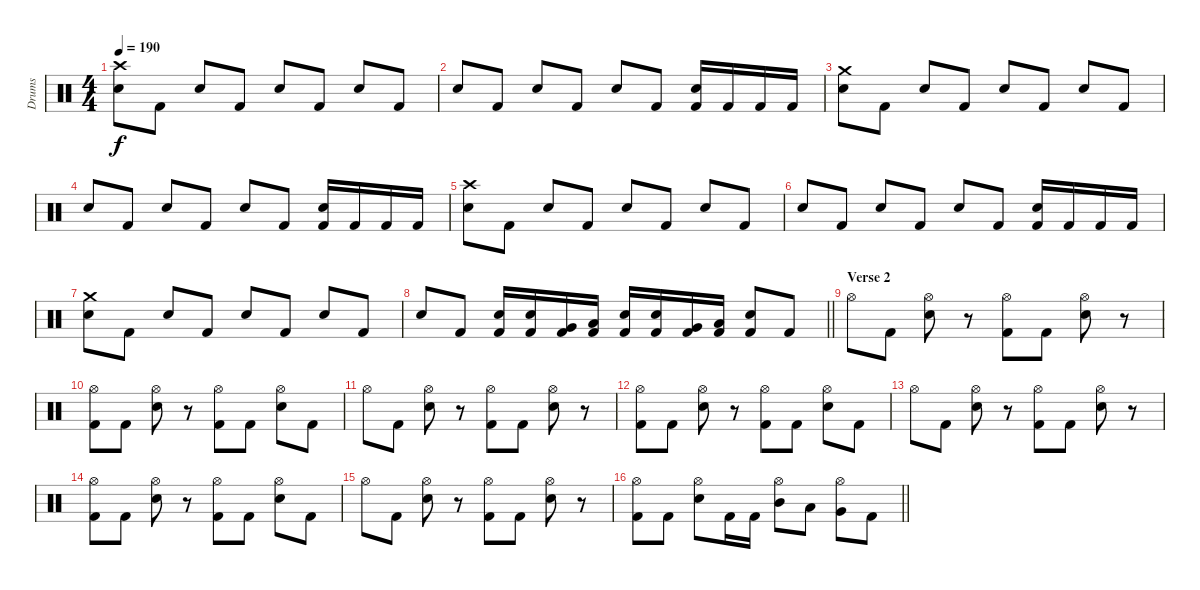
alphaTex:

\track ("Drums" "Drums") {instrument percussion}
\staff {score}
\articulation defaults
\ts (4 4)
\section ("" "")
\tempo 190
\clef neutral
\ks c
("Crash high (hit)" "Electric Snare (hit)").8{dy f} "Kick (hit) 2".8 "Electric Snare (hit)".8 "Kick (hit) 2".8 "Electric Snare (hit)".8 "Kick (hit) 2".8 "Electric Snare (hit)".8 "Kick (hit) 2".8 |
"Electric Snare (hit)".8 "Kick (hit) 2".8 "Electric Snare (hit)".8 "Kick (hit) 2".8 "Electric Snare (hit)".8 "Kick (hit) 2".8 ("Electric Snare (hit)" "Kick (hit) 2").16 "Kick (hit) 2".16 "Kick (hit) 2".16 "Kick (hit) 2".16 |
("Crash medium (hit)" "Electric Snare (hit)").8 "Kick (hit) 2".8 "Electric Snare (hit)".8 "Kick (hit) 2".8 "Electric Snare (hit)".8 "Kick (hit) 2".8 "Electric Snare (hit)".8 "Kick (hit) 2".8 |
"Electric Snare (hit)".8 "Kick (hit) 2".8 "Electric Snare (hit)".8 "Kick (hit) 2".8 "Electric Snare (hit)".8 "Kick (hit) 2".8 ("Electric Snare (hit)" "Kick (hit) 2").16 "Kick (hit) 2".16 "Kick (hit) 2".16 "Kick (hit) 2".16 |
("Crash high (hit)" "Electric Snare (hit)").8 "Kick (hit) 2".8 "Electric Snare (hit)".8 "Kick (hit) 2".8 "Electric Snare (hit)".8 "Kick (hit) 2".8 "Electric Snare (hit)".8 "Kick (hit) 2".8 |
"Electric Snare (hit)".8 "Kick (hit) 2".8 "Electric Snare (hit)".8 "Kick (hit) 2".8 "Electric Snare (hit)".8 "Kick (hit) 2".8 ("Electric Snare (hit)" "Kick (hit) 2").16 "Kick (hit) 2".16 "Kick (hit) 2".16 "Kick (hit) 2".16 |
("Crash medium (hit)" "Electric Snare (hit)").8 "Kick (hit) 2".8 "Electric Snare (hit)".8 "Kick (hit) 2".8 "Electric Snare (hit)".8 "Kick (hit) 2".8 "Electric Snare (hit)".8 "Kick (hit) 2".8 |
\barLineRight lightlight "Electric Snare (hit)".8 "Kick (hit) 2".8
("Electric Snare (hit)" "Kick (hit) 2").16 ("Electric Snare (hit)" "Kick (hit) 2").16 ("Very Low Tom (hit)" "Kick (hit) 2").16 ("Low Floor Tom (hit)" "Kick (hit) 2").16 ("Electric Snare (hit)" "Kick (hit) 2").16 ("Electric Snare (hit)" "Kick (hit) 2").16 ("Very Low Tom (hit)" "Kick (hit) 2").16 ("Low Floor Tom (hit)" "Kick (hit) 2").16 ("Electric Snare (hit)" "Kick (hit) 2").8 "Kick (hit) 2".8 |
\section ("" "Verse 2")
"Hi-Hat (open)".8 "Kick (hit) 2".8 ("Hi-Hat (open)" "Electric Snare (hit)").8 r.8 ("Hi-Hat (open)" "Kick (hit) 2").8 "Kick (hit) 2".8 ("Hi-Hat (open)" "Electric Snare (hit)").8 r.8 |
("Hi-Hat (open)" "Kick (hit) 2").8 "Kick (hit) 2".8 ("Hi-Hat (open)" "Electric Snare (hit)").8 r.8 ("Hi-Hat (open)" "Kick (hit) 2").8 "Kick (hit) 2".8 ("Hi-Hat (open)" "Electric Snare (hit)").8 "Kick (hit) 2".8 |
"Hi-Hat (open)".8 "Kick (hit) 2".8 ("Hi-Hat (open)" "Electric Snare (hit)").8 r.8 ("Hi-Hat (open)" "Kick (hit) 2").8 "Kick (hit) 2".8 ("Hi-Hat (open)" "Electric Snare (hit)").8 r.8 |
("Hi-Hat (open)" "Kick (hit) 2").8 "Kick (hit) 2".8 ("Hi-Hat (open)" "Electric Snare (hit)").8 r.8 ("Hi-Hat (open)" "Kick (hit) 2").8 "Kick (hit) 2".8 ("Hi-Hat (open)" "Electric Snare (hit)").8 "Kick (hit) 2".8 |
"Hi-Hat (open)".8 "Kick (hit) 2".8 ("Hi-Hat (open)" "Electric Snare (hit)").8 r.8 ("Hi-Hat (open)" "Kick (hit) 2").8 "Kick (hit) 2".8 ("Hi-Hat (open)" "Electric Snare (hit)").8 r.8 |
("Hi-Hat (open)" "Kick (hit) 2").8 "Kick (hit) 2".8 ("Hi-Hat (open)" "Electric Snare (hit)").8 r.8 ("Hi-Hat (open)" "Kick (hit) 2").8 "Kick (hit) 2".8 ("Hi-Hat (open)" "Electric Snare (hit)").8 "Kick (hit) 2".8 |
"Hi-Hat (open)".8 "Kick (hit) 2".8 ("Hi-Hat (open)" "Electric Snare (hit)").8 r.8 ("Hi-Hat (open)" "Kick (hit) 2").8 "Kick (hit) 2".8 ("Hi-Hat (open)" "Electric Snare (hit)").8 r.8 |
\barLineRight lightlight
("Hi-Hat (open)" "Kick (hit) 2").8 "Kick (hit) 2".8 ("Hi-Hat (open)" "Electric Snare (hit)").8 "Kick (hit) 2".16 "Kick (hit) 2".16 ("Hi-Hat (open)" "Mid Tom (hit)").8 "Low Tom (hit)".8 ("Hi-Hat (open)" "Very Low Tom (hit)").8 "Kick (hit) 2".8
